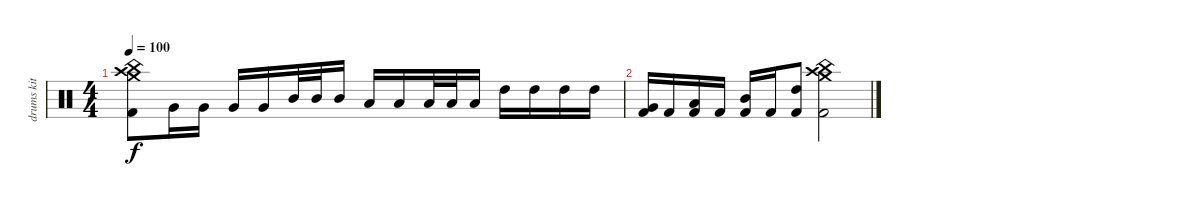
\track ("drums kit" "drums kit") {instrument percussion}
\staff {score}
\articulation defaults
\ts (4 4)
\tempo 100
\clef neutral
\ks c
("Crash high (hit)" "Crash medium (hit)" "China (hit)" "Kick (hit) 2").8{dy f} "Very Low Tom (hit)".16 "Very Low Tom (hit)".16 "Very Low Tom (hit)".16 "Very Low Tom (hit)".16 "Mid Tom (hit)".32 "Mid Tom (hit)".32 "Mid Tom (hit)".16 "Low Tom (hit)".16 "Low Tom (hit)".16 "Low Tom (hit)".32 "Low Tom (hit)".32 "Low Tom (hit)".16 "High Tom (hit)".16 "High Tom (hit)".16 "High Tom (hit)".16 "High Tom (hit)".16 |
("Very Low Tom (hit)" "Kick (hit) 2").16 "Kick (hit) 2".16 ("Low Tom (hit)" "Kick (hit) 2").16 "Kick (hit) 2".16 ("Mid Tom (hit)" "Kick (hit) 2").16 "Kick (hit) 2".16 ("High Tom (hit)" "Kick (hit) 2").8 ("China (hit)" "Crash medium (hit)" "Crash high (hit)" "Kick (hit) 2").2
